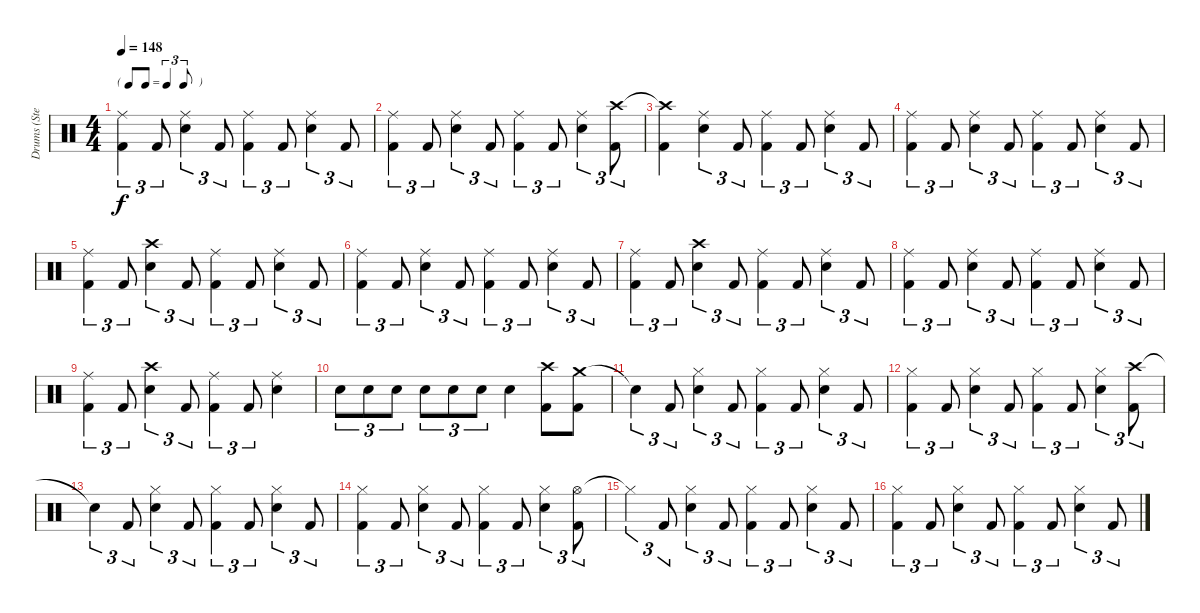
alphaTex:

\track ("Drums (Steven)" "Drums (Ste") {instrument percussion}
\staff {score}
\articulation defaults
\ts (4 4)
\tf triplet8th
\tempo 148
\clef neutral
\ks c
("Ride (middle)" "Kick (hit) 2").4{tu (3 2) dy f} "Kick (hit) 2".8{tu (3 2)} ("Ride (middle)" "Snare (hit) 2").4{tu (3 2)} "Kick (hit) 2".8{tu (3 2)} ("Ride (middle)" "Kick (hit) 2").4{tu (3 2)} "Kick (hit) 2".8{tu (3 2)} ("Ride (middle)" "Snare (hit) 2").4{tu (3 2)} "Kick (hit) 2".8{tu (3 2)} |
("Ride (middle)" "Kick (hit) 2").4{tu (3 2)} "Kick (hit) 2".8{tu (3 2)} ("Ride (middle)" "Snare (hit) 2").4{tu (3 2)} "Kick (hit) 2".8{tu (3 2)} ("Ride (middle)" "Kick (hit) 2").4{tu (3 2)} "Kick (hit) 2".8{tu (3 2)} ("Ride (middle)" "Snare (hit) 2").4{tu (3 2)} ("Crash high (hit)" "Kick (hit) 2").8{tu (3 2)} |
("Crash high (hit)"{t} "Kick (hit) 2").4 ("Ride (middle)" "Snare (hit) 2").4{tu (3 2)} "Kick (hit) 2".8{tu (3 2)} ("Ride (middle)" "Kick (hit) 2").4{tu (3 2)} "Kick (hit) 2".8{tu (3 2)} ("Ride (middle)" "Snare (hit) 2").4{tu (3 2)} "Kick (hit) 2".8{tu (3 2)} |
("Ride (middle)" "Kick (hit) 2").4{tu (3 2)} "Kick (hit) 2".8{tu (3 2)} ("Ride (middle)" "Snare (hit) 2").4{tu (3 2)} "Kick (hit) 2".8{tu (3 2)} ("Ride (middle)" "Kick (hit) 2").4{tu (3 2)} "Kick (hit) 2".8{tu (3 2)} ("Ride (middle)" "Snare (hit) 2").4{tu (3 2)} "Kick (hit) 2".8{tu (3 2)} |
("Ride (middle)" "Kick (hit) 2").4{tu (3 2)} "Kick (hit) 2".8{tu (3 2)} ("Crash high (hit)" "Snare (hit) 2").4{tu (3 2)} "Kick (hit) 2".8{tu (3 2)} ("Ride (middle)" "Kick (hit) 2").4{tu (3 2)} "Kick (hit) 2".8{tu (3 2)} ("Ride (middle)" "Snare (hit) 2").4{tu (3 2)} "Kick (hit) 2".8{tu (3 2)} |
("Ride (middle)" "Kick (hit) 2").4{tu (3 2)} "Kick (hit) 2".8{tu (3 2)} ("Ride (middle)" "Snare (hit) 2").4{tu (3 2)} "Kick (hit) 2".8{tu (3 2)} ("Ride (middle)" "Kick (hit) 2").4{tu (3 2)} "Kick (hit) 2".8{tu (3 2)} ("Ride (middle)" "Snare (hit) 2").4{tu (3 2)} "Kick (hit) 2".8{tu (3 2)} |
("Ride (middle)" "Kick (hit) 2").4{tu (3 2)} "Kick (hit) 2".8{tu (3 2)} ("Crash high (hit)" "Snare (hit) 2").4{tu (3 2)} "Kick (hit) 2".8{tu (3 2)} ("Ride (middle)" "Kick (hit) 2").4{tu (3 2)} "Kick (hit) 2".8{tu (3 2)} ("Ride (middle)" "Snare (hit) 2").4{tu (3 2)} "Kick (hit) 2".8{tu (3 2)} |
("Ride (middle)" "Kick (hit) 2").4{tu (3 2)} "Kick (hit) 2".8{tu (3 2)} ("Ride (middle)" "Snare (hit) 2").4{tu (3 2)} "Kick (hit) 2".8{tu (3 2)} ("Ride (middle)" "Kick (hit) 2").4{tu (3 2)} "Kick (hit) 2".8{tu (3 2)} ("Ride (middle)" "Snare (hit) 2").4{tu (3 2)} "Kick (hit) 2".8{tu (3 2)} |
("Ride (middle)" "Kick (hit) 2").4{tu (3 2)} "Kick (hit) 2".8{tu (3 2)} ("Crash high (hit)" "Snare (hit) 2").4{tu (3 2)} "Kick (hit) 2".8{tu (3 2)} ("Ride (middle)" "Kick (hit) 2").4{tu (3 2)} "Kick (hit) 2".8{tu (3 2)} ("Ride (middle)" "Snare (hit) 2").4 |
"Snare (hit) 2".8{tu (3 2)} "Snare (hit) 2".8{tu (3 2)} "Snare (hit) 2".8{tu (3 2)} "Snare (hit) 2".8{tu (3 2)} "Snare (hit) 2".8{tu (3 2)} "Snare (hit) 2".8{tu (3 2)} "Snare (hit) 2".4 ("Crash high (hit)" "Kick (hit) 2").8 ("Crash medium (hit)" "Kick (hit) 2").8 |
"Snare (hit)"{t}.4{tu (3 2)} "Kick (hit) 2".8{tu (3 2)} ("Hi-Hat (closed)" "Snare (hit) 2").4{tu (3 2)} "Kick (hit) 2".8{tu (3 2)} ("Hi-Hat (closed)" "Kick (hit) 2").4{tu (3 2)} "Kick (hit) 2".8{tu (3 2)} ("Hi-Hat (closed)" "Snare (hit) 2").4{tu (3 2)} "Kick (hit) 2".8{tu (3 2)} |
("Hi-Hat (closed)" "Kick (hit) 2").4{tu (3 2)} "Kick (hit) 2".8{tu (3 2)} ("Hi-Hat (closed)" "Snare (hit) 2").4{tu (3 2)} "Kick (hit) 2".8{tu (3 2)} ("Hi-Hat (closed)" "Kick (hit) 2").4{tu (3 2)} "Kick (hit) 2".8{tu (3 2)} ("Hi-Hat (closed)" "Snare (hit) 2").4{tu (3 2)} ("Crash high (hit)" "Kick (hit) 2").8{tu (3 2)} |
"Snare (hit)"{t}.4{tu (3 2)} "Kick (hit) 2".8{tu (3 2)} ("Hi-Hat (closed)" "Snare (hit) 2").4{tu (3 2)} "Kick (hit) 2".8{tu (3 2)} ("Hi-Hat (closed)" "Kick (hit) 2").4{tu (3 2)} "Kick (hit) 2".8{tu (3 2)} ("Hi-Hat (closed)" "Snare (hit) 2").4{tu (3 2)} "Kick (hit) 2".8{tu (3 2)} |
("Hi-Hat (closed)" "Kick (hit) 2").4{tu (3 2)} "Kick (hit) 2".8{tu (3 2)} ("Hi-Hat (closed)" "Snare (hit) 2").4{tu (3 2)} "Kick (hit) 2".8{tu (3 2)} ("Hi-Hat (closed)" "Kick (hit) 2").4{tu (3 2)} "Kick (hit) 2".8{tu (3 2)} ("Hi-Hat (closed)" "Snare (hit) 2").4{tu (3 2)} ("Hi-Hat (open)" "Kick (hit) 2").8{tu (3 2)} |
"Hi-Hat (closed)"{t}.4{tu (3 2)} "Kick (hit) 2".8{tu (3 2)} ("Hi-Hat (closed)" "Snare (hit) 2").4{tu (3 2)} "Kick (hit) 2".8{tu (3 2)} ("Hi-Hat (closed)" "Kick (hit) 2").4{tu (3 2)} "Kick (hit) 2".8{tu (3 2)} ("Hi-Hat (closed)" "Snare (hit) 2").4{tu (3 2)} "Kick (hit) 2".8{tu (3 2)} |
("Hi-Hat (closed)" "Kick (hit) 2").4{tu (3 2)} "Kick (hit) 2".8{tu (3 2)} ("Hi-Hat (closed)" "Snare (hit) 2").4{tu (3 2)} "Kick (hit) 2".8{tu (3 2)} ("Hi-Hat (closed)" "Kick (hit) 2").4{tu (3 2)} "Kick (hit) 2".8{tu (3 2)} ("Hi-Hat (closed)" "Snare (hit) 2").4{tu (3 2)} "Kick (hit) 2".8{tu (3 2)}
